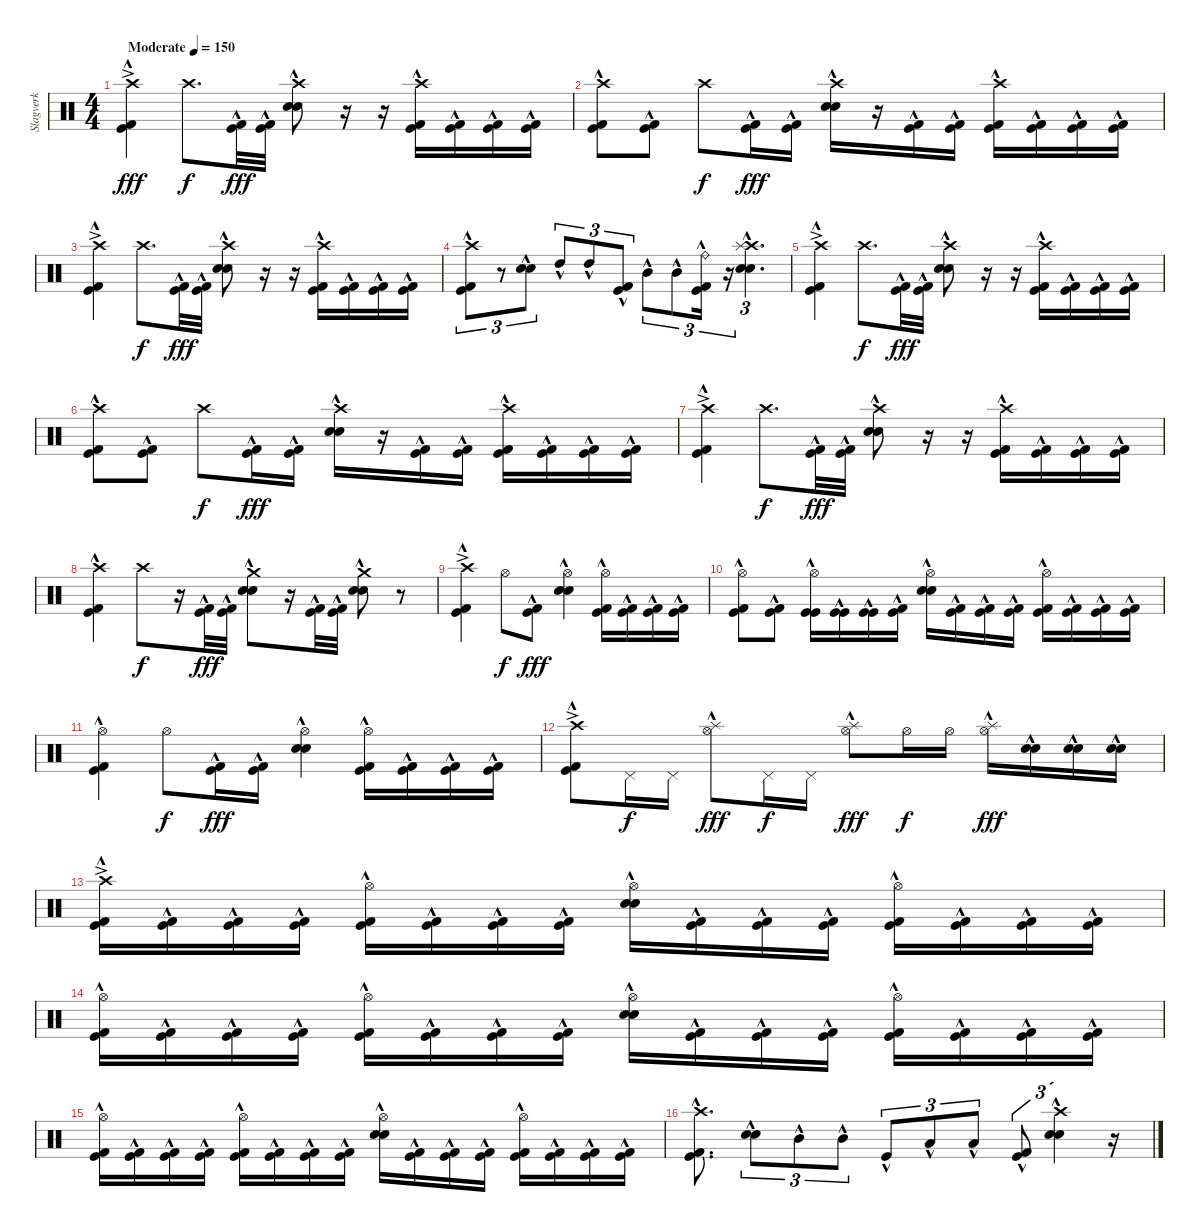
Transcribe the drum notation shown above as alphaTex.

\track ("Slagverk" "Slagverk") {instrument percussion}
\staff {score}
\articulation defaults
\ts (4 4)
\tempo (150 "Moderate")
\clef neutral
\ks c
("Crash high (hit)"{ac} "Kick (hit)"{hac} "Kick (hit) 2"{hac}).4{dy fff} "Crash high (hit)".8{d dy f} ("Kick (hit)"{hac} "Kick (hit) 2"{hac}).32{dy fff} ("Kick (hit)"{hac} "Kick (hit) 2"{hac}).32 ("Crash high (hit)" "Electric Snare (hit)"{hac} "Snare (hit) 2").8 r.16 r.16 ("Crash high (hit)" "Kick (hit)"{hac} "Kick (hit) 2"{hac}).16 ("Kick (hit)"{hac} "Kick (hit) 2"{hac}).16 ("Kick (hit)"{hac} "Kick (hit) 2"{hac}).16 ("Kick (hit)"{hac} "Kick (hit) 2"{hac}).16 |
("Crash high (hit)" "Kick (hit)"{hac} "Kick (hit) 2"{hac}).8 ("Kick (hit)"{hac} "Kick (hit) 2"{hac}).8 "Crash high (hit)".8{dy f} ("Kick (hit)"{hac} "Kick (hit) 2"{hac}).16{dy fff} ("Kick (hit)"{hac} "Kick (hit) 2"{hac}).16 ("Crash high (hit)" "Electric Snare (hit)"{hac} "Snare (hit) 2").16 r.16 ("Kick (hit)"{hac} "Kick (hit) 2"{hac}).16 ("Kick (hit)"{hac} "Kick (hit) 2"{hac}).16 ("Crash high (hit)" "Kick (hit)"{hac} "Kick (hit) 2"{hac}).16 ("Kick (hit)"{hac} "Kick (hit) 2"{hac}).16 ("Kick (hit)"{hac} "Kick (hit) 2"{hac}).16 ("Kick (hit)"{hac} "Kick (hit) 2"{hac}).16 |
("Crash high (hit)"{ac} "Kick (hit)"{hac} "Kick (hit) 2"{hac}).4 "Crash high (hit)".8{d dy f} ("Kick (hit)"{hac} "Kick (hit) 2"{hac}).32{dy fff} ("Kick (hit)"{hac} "Kick (hit) 2"{hac}).32 ("Crash high (hit)" "Electric Snare (hit)"{hac} "Snare (hit) 2").8 r.16 r.16 ("Crash high (hit)" "Kick (hit)"{hac} "Kick (hit) 2"{hac}).16 ("Kick (hit)"{hac} "Kick (hit) 2"{hac}).16 ("Kick (hit)"{hac} "Kick (hit) 2"{hac}).16 ("Kick (hit)"{hac} "Kick (hit) 2"{hac}).16 |
("Crash high (hit)" "Kick (hit)"{hac} "Kick (hit) 2"{hac}).8{tu (3 2)} r.8{tu (3 2)} ("Electric Snare (hit)"{hac} "Snare (hit) 2").8{tu (3 2)} "High Tom (hit)"{hac}.8{tu (3 2)} "High Tom (hit)"{hac}.8{tu (3 2)} ("Kick (hit)"{hac} "Kick (hit) 2"{hac}).8{tu (3 2)} "Mid Tom (hit)"{hac}.8{tu (3 2)} "Mid Tom (hit)"{hac}.8{tu (3 2)} ("Ride (bell)"{hac} "Kick (hit)"{hac} "Kick (hit) 2"{hac}).16{tu (3 2)} r.16{tu (3 2)} ("Crash high (hit)" "Splash (hit)"{hac} "Electric Snare (hit)"{hac} "Snare (hit) 2").4{d tu (3 2)} |
("Crash high (hit)"{ac} "Kick (hit)"{hac} "Kick (hit) 2"{hac}).4 "Crash high (hit)".8{d dy f} ("Kick (hit)"{hac} "Kick (hit) 2"{hac}).32{dy fff} ("Kick (hit)"{hac} "Kick (hit) 2"{hac}).32 ("Crash high (hit)" "Electric Snare (hit)"{hac} "Snare (hit) 2").8 r.16 r.16 ("Crash high (hit)" "Kick (hit)"{hac} "Kick (hit) 2"{hac}).16 ("Kick (hit)"{hac} "Kick (hit) 2"{hac}).16 ("Kick (hit)"{hac} "Kick (hit) 2"{hac}).16 ("Kick (hit)"{hac} "Kick (hit) 2"{hac}).16 |
("Crash high (hit)" "Kick (hit)"{hac} "Kick (hit) 2"{hac}).8 ("Kick (hit)"{hac} "Kick (hit) 2"{hac}).8 "Crash high (hit)".8{dy f} ("Kick (hit)"{hac} "Kick (hit) 2"{hac}).16{dy fff} ("Kick (hit)"{hac} "Kick (hit) 2"{hac}).16 ("Crash high (hit)" "Electric Snare (hit)"{hac} "Snare (hit) 2").16 r.16 ("Kick (hit)"{hac} "Kick (hit) 2"{hac}).16 ("Kick (hit)"{hac} "Kick (hit) 2"{hac}).16 ("Crash high (hit)" "Kick (hit)"{hac} "Kick (hit) 2"{hac}).16 ("Kick (hit)"{hac} "Kick (hit) 2"{hac}).16 ("Kick (hit)"{hac} "Kick (hit) 2"{hac}).16 ("Kick (hit)"{hac} "Kick (hit) 2"{hac}).16 |
("Crash high (hit)"{ac} "Kick (hit)"{hac} "Kick (hit) 2"{hac}).4 "Crash high (hit)".8{d dy f} ("Kick (hit)"{hac} "Kick (hit) 2"{hac}).32{dy fff} ("Kick (hit)"{hac} "Kick (hit) 2"{hac}).32 ("Crash high (hit)" "Electric Snare (hit)"{hac} "Snare (hit) 2").8 r.16 r.16 ("Crash high (hit)" "Kick (hit)"{hac} "Kick (hit) 2"{hac}).16 ("Kick (hit)"{hac} "Kick (hit) 2"{hac}).16 ("Kick (hit)"{hac} "Kick (hit) 2"{hac}).16 ("Kick (hit)"{hac} "Kick (hit) 2"{hac}).16 |
("Crash high (hit)" "Kick (hit)"{hac} "Kick (hit) 2"{hac}).4 "Crash high (hit)".8{dy f} r.16 ("Kick (hit)"{hac} "Kick (hit) 2"{hac}).32{dy fff} ("Kick (hit)"{hac} "Kick (hit) 2"{hac}).32 ("Crash medium (hit)" "Electric Snare (hit)"{hac} "Snare (hit) 2").8 r.16 ("Kick (hit)"{hac} "Kick (hit) 2"{hac}).32 ("Kick (hit)"{hac} "Kick (hit) 2"{hac}).32 ("Crash medium (hit)" "Electric Snare (hit)"{hac} "Snare (hit) 2").8 r.8 |
("Crash high (hit)"{ac} "Kick (hit)"{hac} "Kick (hit) 2"{hac}).4 "Hi-Hat (open)".8{dy f} ("Kick (hit)"{hac} "Kick (hit) 2"{hac}).8{dy fff} ("Hi-Hat (open)" "Electric Snare (hit)"{hac} "Snare (hit) 2").4 ("Hi-Hat (open)" "Kick (hit)"{hac} "Kick (hit) 2"{hac}).16 ("Kick (hit)"{hac} "Kick (hit) 2"{hac}).16 ("Kick (hit)"{hac} "Kick (hit) 2"{hac}).16 ("Kick (hit)"{hac} "Kick (hit) 2"{hac}).16 |
("Hi-Hat (open)" "Kick (hit)"{hac} "Kick (hit) 2"{hac}).8 ("Kick (hit)"{hac} "Kick (hit) 2"{hac}).8 ("Hi-Hat (open)" "Kick (hit)"{hac} "Kick (hit)"{hac}).16 ("Kick (hit)"{hac} "Kick (hit)"{hac}).16 ("Kick (hit)"{hac} "Kick (hit)"{hac}).16 ("Kick (hit)"{hac} "Kick (hit) 2"{hac}).16 ("Hi-Hat (open)" "Electric Snare (hit)"{hac} "Snare (hit) 2").16 ("Kick (hit)"{hac} "Kick (hit) 2"{hac}).16 ("Kick (hit)"{hac} "Kick (hit) 2"{hac}).16 ("Kick (hit)"{hac} "Kick (hit) 2"{hac}).16 ("Hi-Hat (open)" "Kick (hit)"{hac} "Kick (hit) 2"{hac}).16 ("Kick (hit)"{hac} "Kick (hit) 2"{hac}).16 ("Kick (hit)"{hac} "Kick (hit) 2"{hac}).16 ("Kick (hit)"{hac} "Kick (hit) 2"{hac}).16 |
("Hi-Hat (open)" "Kick (hit)"{hac} "Kick (hit) 2"{hac}).4 "Hi-Hat (open)".8{dy f} ("Kick (hit)"{hac} "Kick (hit) 2"{hac}).16{dy fff} ("Kick (hit)"{hac} "Kick (hit) 2"{hac}).16 ("Hi-Hat (open)" "Electric Snare (hit)"{hac} "Snare (hit) 2").4 ("Hi-Hat (open)" "Kick (hit)"{hac} "Kick (hit) 2"{hac}).16 ("Kick (hit)"{hac} "Kick (hit) 2"{hac}).16 ("Kick (hit)"{hac} "Kick (hit) 2"{hac}).16 ("Kick (hit)"{hac} "Kick (hit) 2"{hac}).16 |
("Crash high (hit)"{ac} "Kick (hit)"{hac} "Kick (hit) 2"{hac}).8 "Pedal Hi-Hat (hit)".16{dy f} "Pedal Hi-Hat (hit)".16 ("Hi-Hat (open)"{hac} "Splash (hit)"{hac}).8{dy fff} "Pedal Hi-Hat (hit)".16{dy f} "Pedal Hi-Hat (hit)".16 ("Hi-Hat (open)"{hac} "Splash (hit)"{hac}).8{dy fff} "Hi-Hat (open)".16{dy f} "Hi-Hat (open)".16 ("Hi-Hat (open)"{hac} "Splash (hit)"{hac}).16{dy fff} ("Electric Snare (hit)"{hac} "Snare (hit) 2").16 ("Electric Snare (hit)"{hac} "Snare (hit) 2").16 ("Electric Snare (hit)"{hac} "Snare (hit) 2").16 |
("Crash high (hit)"{ac} "Kick (hit)"{hac} "Kick (hit) 2"{hac}).16 ("Kick (hit)"{hac} "Kick (hit) 2"{hac}).16 ("Kick (hit)"{hac} "Kick (hit) 2"{hac}).16 ("Kick (hit)"{hac} "Kick (hit) 2"{hac}).16 ("Hi-Hat (open)" "Kick (hit)"{hac} "Kick (hit) 2"{hac}).16 ("Kick (hit)"{hac} "Kick (hit) 2"{hac}).16 ("Kick (hit)"{hac} "Kick (hit) 2"{hac}).16 ("Kick (hit)"{hac} "Kick (hit) 2"{hac}).16 ("Hi-Hat (open)" "Electric Snare (hit)"{hac} "Snare (hit) 2").16 ("Kick (hit)"{hac} "Kick (hit) 2"{hac}).16 ("Kick (hit)"{hac} "Kick (hit) 2"{hac}).16 ("Kick (hit)"{hac} "Kick (hit) 2"{hac}).16 ("Hi-Hat (open)" "Kick (hit)"{hac} "Kick (hit) 2"{hac}).16 ("Kick (hit)"{hac} "Kick (hit) 2"{hac}).16 ("Kick (hit)"{hac} "Kick (hit) 2"{hac}).16 ("Kick (hit)"{hac} "Kick (hit) 2"{hac}).16 |
("Hi-Hat (open)" "Kick (hit)"{hac} "Kick (hit) 2"{hac}).16 ("Kick (hit)"{hac} "Kick (hit) 2"{hac}).16 ("Kick (hit)"{hac} "Kick (hit) 2"{hac}).16 ("Kick (hit)"{hac} "Kick (hit) 2"{hac}).16 ("Hi-Hat (open)" "Kick (hit)"{hac} "Kick (hit) 2"{hac}).16 ("Kick (hit)"{hac} "Kick (hit) 2"{hac}).16 ("Kick (hit)"{hac} "Kick (hit) 2"{hac}).16 ("Kick (hit)"{hac} "Kick (hit) 2"{hac}).16 ("Hi-Hat (open)" "Electric Snare (hit)"{hac} "Snare (hit) 2").16 ("Kick (hit)"{hac} "Kick (hit) 2"{hac}).16 ("Kick (hit)"{hac} "Kick (hit) 2"{hac}).16 ("Kick (hit)"{hac} "Kick (hit) 2"{hac}).16 ("Hi-Hat (open)" "Kick (hit)"{hac} "Kick (hit) 2"{hac}).16 ("Kick (hit)"{hac} "Kick (hit) 2"{hac}).16 ("Kick (hit)"{hac} "Kick (hit) 2"{hac}).16 ("Kick (hit)"{hac} "Kick (hit) 2"{hac}).16 |
("Hi-Hat (open)" "Kick (hit)"{hac} "Kick (hit) 2"{hac}).16 ("Kick (hit)"{hac} "Kick (hit) 2"{hac}).16 ("Kick (hit)"{hac} "Kick (hit) 2"{hac}).16 ("Kick (hit)"{hac} "Kick (hit) 2"{hac}).16 ("Hi-Hat (open)" "Kick (hit)"{hac} "Kick (hit) 2"{hac}).16 ("Kick (hit)"{hac} "Kick (hit) 2"{hac}).16 ("Kick (hit)"{hac} "Kick (hit) 2"{hac}).16 ("Kick (hit)"{hac} "Kick (hit) 2"{hac}).16 ("Hi-Hat (open)" "Electric Snare (hit)"{hac} "Snare (hit) 2").16 ("Kick (hit)"{hac} "Kick (hit) 2"{hac}).16 ("Kick (hit)"{hac} "Kick (hit) 2"{hac}).16 ("Kick (hit)"{hac} "Kick (hit) 2"{hac}).16 ("Hi-Hat (open)" "Kick (hit)"{hac} "Kick (hit) 2"{hac}).16 ("Kick (hit)"{hac} "Kick (hit) 2"{hac}).16 ("Kick (hit)"{hac} "Kick (hit) 2"{hac}).16 ("Kick (hit)"{hac} "Kick (hit) 2"{hac}).16 |
("Crash high (hit)" "Kick (hit)"{hac} "Kick (hit) 2"{hac}).8{d} ("Electric Snare (hit)"{hac} "Snare (hit) 2").8{tu (3 2)} "Mid Tom (hit)"{hac}.8{tu (3 2)} "Mid Tom (hit)"{hac}.8{tu (3 2)} "Kick (hit)"{hac}.8{tu (3 2)} "Low Tom (hit)"{hac}.8{tu (3 2)} "Low Tom (hit)"{hac}.8{tu (3 2)} ("Kick (hit)"{hac} "Kick (hit) 2"{hac}).8{tu (3 2)} ("Crash high (hit)" "Electric Snare (hit)"{hac} "Snare (hit) 2").4{tu (3 2)} r.16
